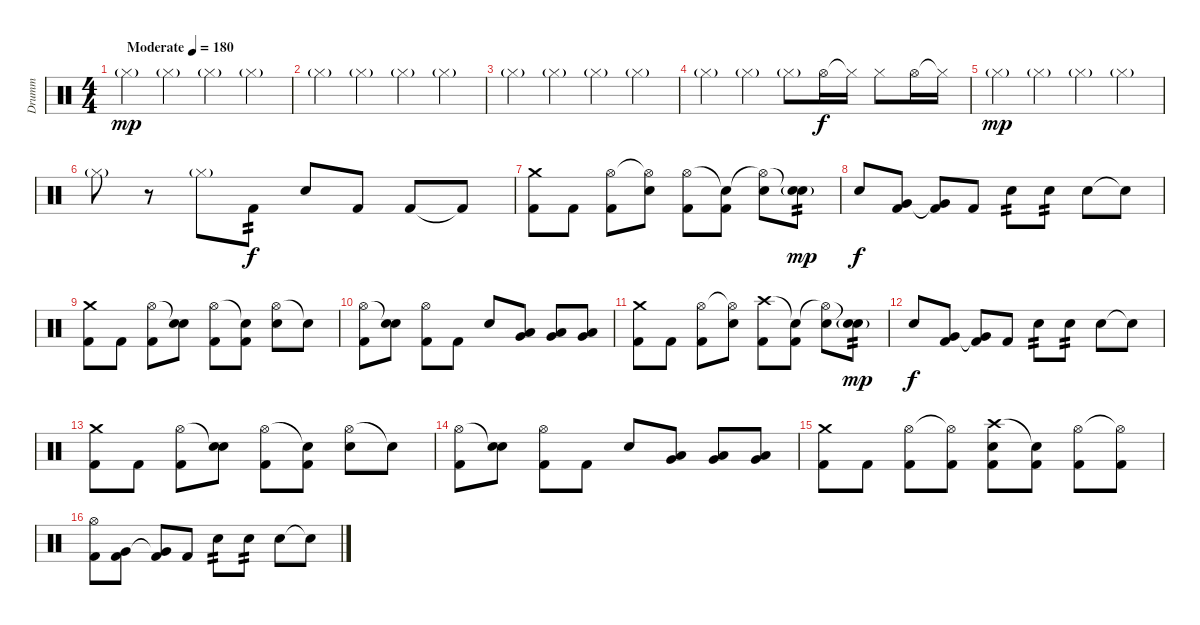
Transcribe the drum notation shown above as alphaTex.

\track ("Drumm" "Drumm") {instrument percussion}
\staff {score}
\articulation defaults
\ts (4 4)
\tempo (180 "Moderate")
\clef neutral
\ks c "Hi-Hat (closed)"{g}.4{dy mp} "Hi-Hat (closed)"{g}.4 "Hi-Hat (closed)"{g}.4 "Hi-Hat (closed)"{g}.4
|
"Hi-Hat (closed)"{g}.4 "Hi-Hat (closed)"{g}.4 "Hi-Hat (closed)"{g}.4 "Hi-Hat (closed)"{g}.4 |
"Hi-Hat (closed)"{g}.4 "Hi-Hat (closed)"{g}.4 "Hi-Hat (closed)"{g}.4 "Hi-Hat (closed)"{g}.4 |
"Hi-Hat (closed)"{g}.4 "Hi-Hat (closed)"{g}.4 "Hi-Hat (closed)"{g}.8 "Hi-Hat (open)".16{dy f} "Hi-Hat (closed)"{t}.16 "Hi-Hat (closed)".8 "Hi-Hat (open)".16 "Hi-Hat (closed)"{t}.16 |
"Hi-Hat (closed)"{g}.4{dy mp} "Hi-Hat (closed)"{g}.4 "Hi-Hat (closed)"{g}.4 "Hi-Hat (closed)"{g}.4 |
"Hi-Hat (closed)"{g}.8 r.8 "Hi-Hat (closed)"{g}.8 "Kick (hit) 2".8{tp 2 dy f} "Snare (hit) 2".8 "Kick (hit) 2".8 "Kick (hit) 2".8 "Kick (hit) 2"{t}.8 |
("Crash medium (hit)" "Kick (hit) 2").8 "Kick (hit) 2".8 ("Hi-Hat (open)" "Kick (hit) 2").8 ("Hi-Hat (open)"{t} "Snare (hit) 2").8 ("Hi-Hat (open)" "Kick (hit) 2").8 ("Snare (hit)"{t} "Kick (hit) 2").8 ("Hi-Hat (open)"{t} "Snare (hit) 2").8 ("Snare (hit)"{t} "Snare (hit) 2"{g}).8{tp 2 dy mp} |
"Snare (hit) 2".8{dy f} ("Very Low Tom (hit)" "Kick (hit) 2").8 ("Very Low Tom (hit)"{t} "Kick (hit) 2").8 "Kick (hit) 2".8 "Snare (hit) 2".8{tp 2} "Snare (hit) 2".8{tp 2} "Snare (hit) 2".8 "Snare (hit) 2"{t}.8 |
("Crash medium (hit)" "Kick (hit) 2").8 "Kick (hit) 2".8 ("Hi-Hat (open)" "Kick (hit) 2").8 ("Snare (hit)"{t} "Snare (hit) 2").8 ("Hi-Hat (open)" "Kick (hit) 2").8 ("Snare (hit)"{t} "Kick (hit) 2").8 ("Hi-Hat (open)" "Snare (hit) 2").8 "Snare (hit)"{t}.8 |
("Hi-Hat (open)" "Kick (hit) 2").8 ("Snare (hit)"{t} "Snare (hit) 2").8 ("Hi-Hat (open)" "Kick (hit) 2").8 "Kick (hit) 2".8 "Snare (hit) 2".8 ("Low Floor Tom (hit)" "Very Low Tom (hit)").8 ("Low Floor Tom (hit)" "Very Low Tom (hit)").8 ("Low Floor Tom (hit)" "Very Low Tom (hit)").8 |
("Crash medium (hit)" "Kick (hit) 2").8 "Kick (hit) 2".8 ("Hi-Hat (open)" "Kick (hit) 2").8 ("Hi-Hat (open)"{t} "Snare (hit) 2").8 ("Crash high (hit)" "Kick (hit) 2").8 ("Snare (hit)"{t} "Kick (hit) 2").8 ("Hi-Hat (open)"{t} "Snare (hit) 2").8 ("Snare (hit)"{t} "Snare (hit) 2"{g}).8{tp 2 dy mp} |
"Snare (hit) 2".8{dy f} ("Very Low Tom (hit)" "Kick (hit) 2").8 ("Very Low Tom (hit)"{t} "Kick (hit) 2").8 "Kick (hit) 2".8 "Snare (hit) 2".8{tp 2} "Snare (hit) 2".8{tp 2} "Snare (hit) 2".8 "Snare (hit) 2"{t}.8 |
("Crash medium (hit)" "Kick (hit) 2").8 "Kick (hit) 2".8 ("Hi-Hat (open)" "Kick (hit) 2").8 ("Snare (hit)"{t} "Snare (hit) 2").8 ("Hi-Hat (open)" "Kick (hit) 2").8 ("Snare (hit)"{t} "Kick (hit) 2").8 ("Hi-Hat (open)" "Snare (hit) 2").8 "Snare (hit)"{t}.8 |
("Hi-Hat (open)" "Kick (hit) 2").8 ("Snare (hit)"{t} "Snare (hit) 2").8 ("Hi-Hat (open)" "Kick (hit) 2").8 "Kick (hit) 2".8 "Snare (hit) 2".8 ("Low Floor Tom (hit)" "Very Low Tom (hit)").8 ("Low Floor Tom (hit)" "Very Low Tom (hit)").8 ("Low Floor Tom (hit)" "Very Low Tom (hit)").8 |
("Crash medium (hit)" "Kick (hit) 2").8 "Kick (hit) 2".8 ("Hi-Hat (open)" "Kick (hit) 2").8 ("Hi-Hat (open)"{t} "Kick (hit) 2").8 ("Crash high (hit)" "Snare (hit) 2" "Kick (hit) 2").8 ("Snare (hit)"{t} "Kick (hit) 2").8 ("Hi-Hat (open)" "Kick (hit) 2").8 ("Hi-Hat (open)"{t} "Kick (hit) 2").8 |
("Hi-Hat (open)" "Kick (hit) 2").8 ("Very Low Tom (hit)" "Kick (hit) 2").8 ("Very Low Tom (hit)"{t} "Kick (hit) 2").8 "Kick (hit) 2".8 "Snare (hit) 2".8{tp 2} "Snare (hit) 2".8{tp 2} "Snare (hit) 2".8 "Snare (hit) 2"{t}.8
